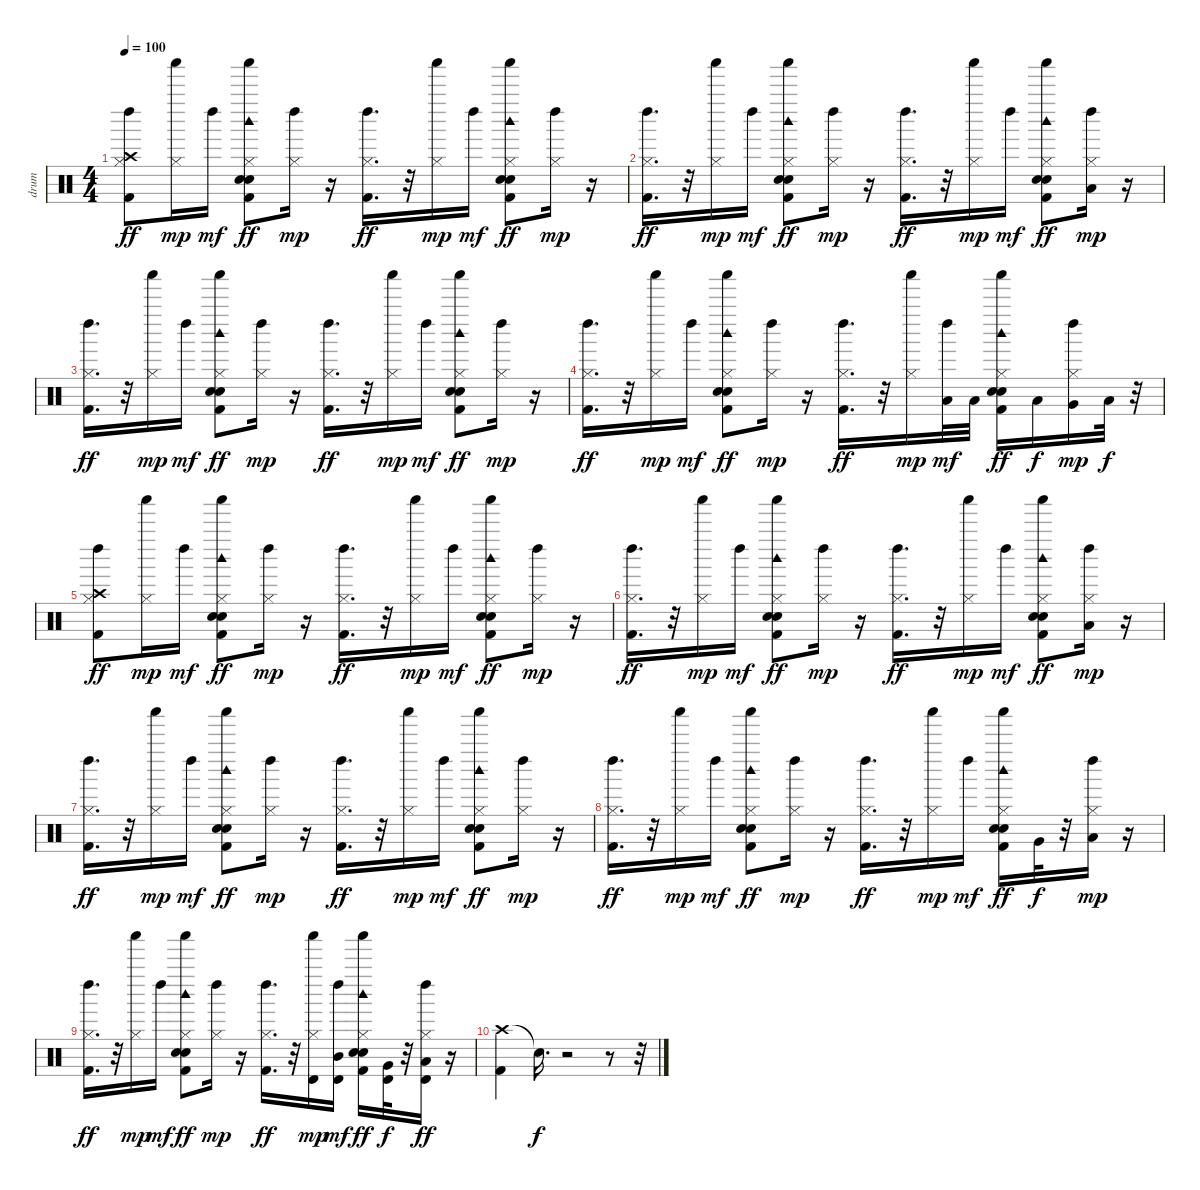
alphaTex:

\track ("drum" "drum") {instrument percussion}
\staff {score}
\articulation defaults
\ts (4 4)
\tempo 100
\clef neutral
\ks c
("Crash high (hit)" "Left Maraca (hit)" "Hi-Hat (closed)" "Kick (hit) 2").8{dy ff} ("Shaker (hit)" "Hi-Hat (closed)").16{dy mp} "Left Maraca (hit)".16{dy mf} ("Shaker (hit)" "Woodblock high (hit)" "Hi-Hat (closed)" "Hand Clap (hit)" "Snare (hit) 2" "Kick (hit) 2").8{dy ff} ("Left Maraca (hit)" "Hi-Hat (closed)").16{dy mp} r.16 ("Left Maraca (hit)" "Hi-Hat (closed)" "Kick (hit) 2").16{d dy ff} r.32 ("Shaker (hit)" "Hi-Hat (closed)").16{dy mp} "Left Maraca (hit)".16{dy mf} ("Shaker (hit)" "Woodblock high (hit)" "Hi-Hat (closed)" "Hand Clap (hit)" "Snare (hit) 2" "Kick (hit) 2").8{dy ff} ("Left Maraca (hit)" "Hi-Hat (closed)").16{dy mp} r.16 |
("Left Maraca (hit)" "Hi-Hat (closed)" "Kick (hit) 2").16{d dy ff} r.32 ("Shaker (hit)" "Hi-Hat (closed)").16{dy mp} "Left Maraca (hit)".16{dy mf} ("Shaker (hit)" "Woodblock high (hit)" "Hi-Hat (closed)" "Hand Clap (hit)" "Snare (hit) 2" "Kick (hit) 2").8{dy ff} ("Left Maraca (hit)" "Hi-Hat (closed)").16{dy mp} r.16 ("Left Maraca (hit)" "Hi-Hat (closed)" "Kick (hit) 2").16{d dy ff} r.32 ("Shaker (hit)" "Hi-Hat (closed)").16{dy mp} "Left Maraca (hit)".16{dy mf} ("Shaker (hit)" "Woodblock high (hit)" "Hi-Hat (closed)" "Hand Clap (hit)" "Snare (hit) 2" "Kick (hit) 2").8{dy ff} ("Left Maraca (hit)" "Hi-Hat (closed)" "Low Floor Tom (hit)").16{dy mp} r.16 |
("Left Maraca (hit)" "Hi-Hat (closed)" "Kick (hit) 2").16{d dy ff} r.32 ("Shaker (hit)" "Hi-Hat (closed)").16{dy mp} "Left Maraca (hit)".16{dy mf} ("Shaker (hit)" "Woodblock high (hit)" "Hi-Hat (closed)" "Hand Clap (hit)" "Snare (hit) 2" "Kick (hit) 2").8{dy ff} ("Left Maraca (hit)" "Hi-Hat (closed)").16{dy mp} r.16 ("Left Maraca (hit)" "Hi-Hat (closed)" "Kick (hit) 2").16{d dy ff} r.32 ("Shaker (hit)" "Hi-Hat (closed)").16{dy mp} "Left Maraca (hit)".16{dy mf} ("Shaker (hit)" "Woodblock high (hit)" "Hi-Hat (closed)" "Hand Clap (hit)" "Snare (hit) 2" "Kick (hit) 2").8{dy ff} ("Left Maraca (hit)" "Hi-Hat (closed)").16{dy mp} r.16 |
("Left Maraca (hit)" "Hi-Hat (closed)" "Kick (hit) 2").16{d dy ff} r.32 ("Shaker (hit)" "Hi-Hat (closed)").16{dy mp} "Left Maraca (hit)".16{dy mf} ("Shaker (hit)" "Woodblock high (hit)" "Hi-Hat (closed)" "Hand Clap (hit)" "Snare (hit) 2" "Kick (hit) 2").8{dy ff} ("Left Maraca (hit)" "Hi-Hat (closed)").16{dy mp} r.16 ("Left Maraca (hit)" "Hi-Hat (closed)" "Kick (hit) 2").16{d dy ff} r.32 ("Shaker (hit)" "Hi-Hat (closed)").16{dy mp} ("Left Maraca (hit)" "Low Tom (hit)").32{dy mf} "Low Tom (hit)".32 ("Shaker (hit)" "Woodblock high (hit)" "Hi-Hat (closed)" "Hand Clap (hit)" "Snare (hit) 2" "Kick (hit) 2").16{dy ff} "Low Tom (hit)".16{dy f} ("Left Maraca (hit)" "Hi-Hat (closed)" "Very Low Tom (hit)").16{dy mp} "Low Floor Tom (hit)".32{dy f} r.32 |
("Crash high (hit)" "Left Maraca (hit)" "Hi-Hat (closed)" "Kick (hit) 2").8{dy ff} ("Shaker (hit)" "Hi-Hat (closed)").16{dy mp} "Left Maraca (hit)".16{dy mf} ("Shaker (hit)" "Woodblock high (hit)" "Hi-Hat (closed)" "Hand Clap (hit)" "Snare (hit) 2" "Kick (hit) 2").8{dy ff} ("Left Maraca (hit)" "Hi-Hat (closed)").16{dy mp} r.16 ("Left Maraca (hit)" "Hi-Hat (closed)" "Kick (hit) 2").16{d dy ff} r.32 ("Shaker (hit)" "Hi-Hat (closed)").16{dy mp} "Left Maraca (hit)".16{dy mf} ("Shaker (hit)" "Woodblock high (hit)" "Hi-Hat (closed)" "Hand Clap (hit)" "Snare (hit) 2" "Kick (hit) 2").8{dy ff} ("Left Maraca (hit)" "Hi-Hat (closed)").16{dy mp} r.16 |
("Left Maraca (hit)" "Hi-Hat (closed)" "Kick (hit) 2").16{d dy ff} r.32 ("Shaker (hit)" "Hi-Hat (closed)").16{dy mp} "Left Maraca (hit)".16{dy mf} ("Shaker (hit)" "Woodblock high (hit)" "Hi-Hat (closed)" "Hand Clap (hit)" "Snare (hit) 2" "Kick (hit) 2").8{dy ff} ("Left Maraca (hit)" "Hi-Hat (closed)").16{dy mp} r.16 ("Left Maraca (hit)" "Hi-Hat (closed)" "Kick (hit) 2").16{d dy ff} r.32 ("Shaker (hit)" "Hi-Hat (closed)").16{dy mp} "Left Maraca (hit)".16{dy mf} ("Shaker (hit)" "Woodblock high (hit)" "Hi-Hat (closed)" "Hand Clap (hit)" "Snare (hit) 2" "Kick (hit) 2").8{dy ff} ("Left Maraca (hit)" "Hi-Hat (closed)" "Low Floor Tom (hit)").16{dy mp} r.16 |
("Left Maraca (hit)" "Hi-Hat (closed)" "Kick (hit) 2").16{d dy ff} r.32 ("Shaker (hit)" "Hi-Hat (closed)").16{dy mp} "Left Maraca (hit)".16{dy mf} ("Shaker (hit)" "Woodblock high (hit)" "Hi-Hat (closed)" "Hand Clap (hit)" "Snare (hit) 2" "Kick (hit) 2").8{dy ff} ("Left Maraca (hit)" "Hi-Hat (closed)").16{dy mp} r.16 ("Left Maraca (hit)" "Hi-Hat (closed)" "Kick (hit) 2").16{d dy ff} r.32 ("Shaker (hit)" "Hi-Hat (closed)").16{dy mp} "Left Maraca (hit)".16{dy mf} ("Shaker (hit)" "Woodblock high (hit)" "Hi-Hat (closed)" "Hand Clap (hit)" "Snare (hit) 2" "Kick (hit) 2").8{dy ff} ("Left Maraca (hit)" "Hi-Hat (closed)").16{dy mp} r.16 |
("Left Maraca (hit)" "Hi-Hat (closed)" "Kick (hit) 2").16{d dy ff} r.32 ("Shaker (hit)" "Hi-Hat (closed)").16{dy mp} "Left Maraca (hit)".16{dy mf} ("Shaker (hit)" "Woodblock high (hit)" "Hi-Hat (closed)" "Hand Clap (hit)" "Snare (hit) 2" "Kick (hit) 2").8{dy ff} ("Left Maraca (hit)" "Hi-Hat (closed)").16{dy mp} r.16 ("Left Maraca (hit)" "Hi-Hat (closed)" "Kick (hit) 2").16{d dy ff} r.32 ("Shaker (hit)" "Hi-Hat (closed)").16{dy mp} "Left Maraca (hit)".16{dy mf} ("Shaker (hit)" "Woodblock high (hit)" "Hi-Hat (closed)" "Hand Clap (hit)" "Snare (hit) 2" "Kick (hit) 2").16{dy ff} "Very Low Tom (hit)".32{dy f} r.32 ("Left Maraca (hit)" "Hi-Hat (closed)" "Low Floor Tom (hit)").16{dy mp} r.16 |
("Left Maraca (hit)" "Hi-Hat (closed)" "Kick (hit) 2").16{d dy ff} r.32 ("Shaker (hit)" "Hi-Hat (closed)").16{dy mp} "Left Maraca (hit)".16{dy mf} ("Shaker (hit)" "Woodblock high (hit)" "Hi-Hat (closed)" "Hand Clap (hit)" "Snare (hit) 2" "Kick (hit) 2").8{dy ff} ("Left Maraca (hit)" "Hi-Hat (closed)").16{dy mp} r.16 ("Left Maraca (hit)" "Hi-Hat (closed)" "Kick (hit) 2").16{d dy ff} r.32 ("Shaker (hit)" "Hi-Hat (closed)" "Timbale high (hit)").16{dy mp} ("Left Maraca (hit)" "Mid Tom (hit)" "Timbale high (hit)").16{dy mf} ("Shaker (hit)" "Woodblock high (hit)" "Hi-Hat (closed)" "Hand Clap (hit)" "Snare (hit) 2" "Kick (hit) 2").16{dy ff} ("Very Low Tom (hit)" "Timbale high (hit)").32{dy f} r.32 ("Left Maraca (hit)" "Hi-Hat (closed)" "Low Floor Tom (hit)" "Timbale high (hit)").16{dy ff} r.16 |
("Crash high (hit)" "Kick (hit) 2").4 "Snare (hit)"{t}.16{d dy f} r.2 r.8 r.32
